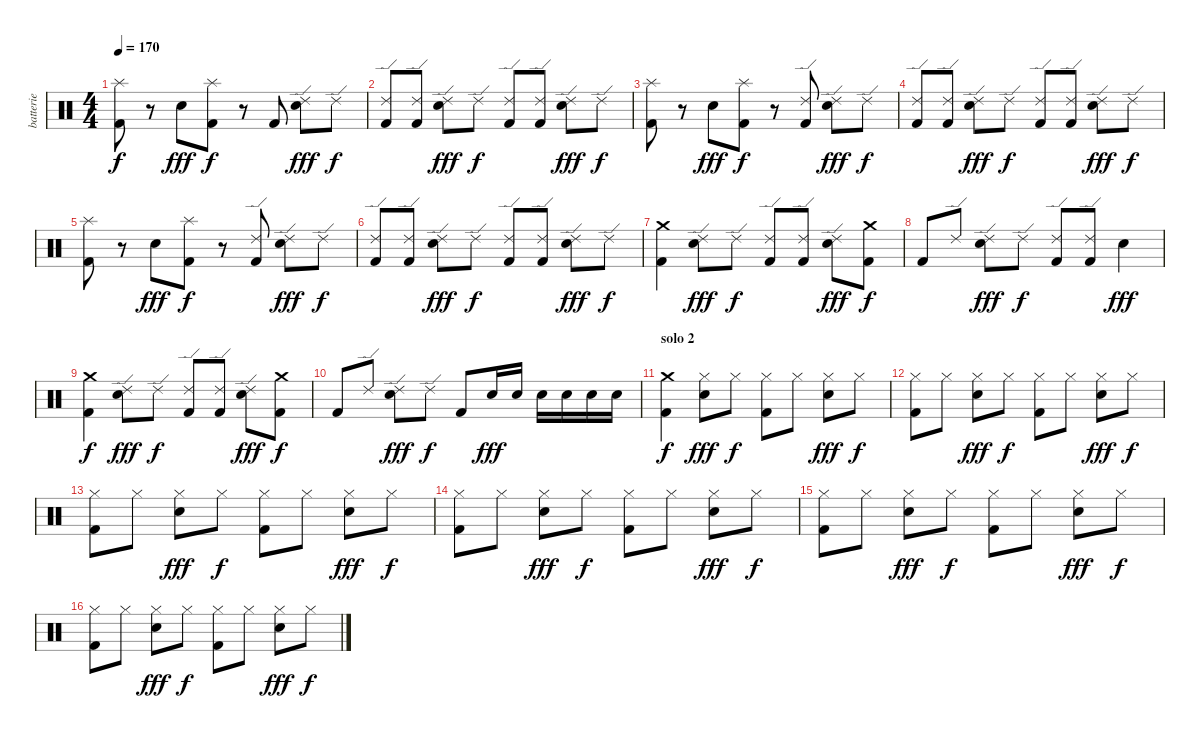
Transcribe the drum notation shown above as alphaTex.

\track ("batterie" "batterie") {instrument percussion}
\staff {score}
\articulation defaults
\ts (4 4)
\tempo 170
\clef neutral
\ks c
("Splash (hit)" "Kick (hit) 2").8{dy f} r.8 "Electric Snare (hit)".8{dy fff} ("Splash (hit)" "Kick (hit) 2").8{dy f} r.8 "Kick (hit) 2".8 ("Ride (edge) 2" "Electric Snare (hit)").8{dy fff} "Ride (edge) 2".8{dy f} |
("Ride (edge) 2" "Kick (hit) 2").8 ("Ride (edge) 2" "Kick (hit) 2").8 ("Ride (edge) 2" "Electric Snare (hit)").8{dy fff} "Ride (edge) 2".8{dy f} ("Ride (edge) 2" "Kick (hit) 2").8 ("Ride (edge) 2" "Kick (hit) 2").8 ("Ride (edge) 2" "Electric Snare (hit)").8{dy fff} "Ride (edge) 2".8{dy f} |
("Splash (hit)" "Kick (hit) 2").8 r.8 "Electric Snare (hit)".8{dy fff} ("Splash (hit)" "Kick (hit) 2").8{dy f} r.8 ("Ride (edge) 2" "Kick (hit) 2").8 ("Ride (edge) 2" "Electric Snare (hit)").8{dy fff} "Ride (edge) 2".8{dy f} |
("Ride (edge) 2" "Kick (hit) 2").8 ("Ride (edge) 2" "Kick (hit) 2").8 ("Ride (edge) 2" "Electric Snare (hit)").8{dy fff} "Ride (edge) 2".8{dy f} ("Ride (edge) 2" "Kick (hit) 2").8 ("Ride (edge) 2" "Kick (hit) 2").8 ("Ride (edge) 2" "Electric Snare (hit)").8{dy fff} "Ride (edge) 2".8{dy f} |
("Splash (hit)" "Kick (hit) 2").8 r.8 "Electric Snare (hit)".8{dy fff} ("Splash (hit)" "Kick (hit) 2").8{dy f} r.8 ("Ride (edge) 2" "Kick (hit) 2").8 ("Ride (edge) 2" "Electric Snare (hit)").8{dy fff} "Ride (edge) 2".8{dy f} |
("Ride (edge) 2" "Kick (hit) 2").8 ("Ride (edge) 2" "Kick (hit) 2").8 ("Ride (edge) 2" "Electric Snare (hit)").8{dy fff} "Ride (edge) 2".8{dy f} ("Ride (edge) 2" "Kick (hit) 2").8 ("Ride (edge) 2" "Kick (hit) 2").8 ("Ride (edge) 2" "Electric Snare (hit)").8{dy fff} "Ride (edge) 2".8{dy f} |
("Crash medium (hit)" "Kick (hit) 2").4 ("Ride (edge) 2" "Electric Snare (hit)").8{dy fff} "Ride (edge) 2".8{dy f} ("Ride (edge) 2" "Kick (hit) 2").8 ("Ride (edge) 2" "Kick (hit) 2").8 ("Ride (edge) 2" "Electric Snare (hit)").8{dy fff} ("Crash medium (hit)" "Kick (hit) 2").8{dy f} |
"Kick (hit) 2".8 "Ride (edge) 2".8 ("Ride (edge) 2" "Electric Snare (hit)").8{dy fff} "Ride (edge) 2".8{dy f} ("Ride (edge) 2" "Kick (hit) 2").8 ("Ride (edge) 2" "Kick (hit) 2").8 "Electric Snare (hit)".4{dy fff} |
("Crash medium (hit)" "Kick (hit) 2").4{dy f} ("Ride (edge) 2" "Electric Snare (hit)").8{dy fff} "Ride (edge) 2".8{dy f} ("Ride (edge) 2" "Kick (hit) 2").8 ("Ride (edge) 2" "Kick (hit) 2").8 ("Ride (edge) 2" "Electric Snare (hit)").8{dy fff} ("Crash medium (hit)" "Kick (hit) 2").8{dy f} |
"Kick (hit) 2".8 "Ride (edge) 2".8 ("Ride (edge) 2" "Electric Snare (hit)").8{dy fff} "Ride (edge) 2".8{dy f} "Kick (hit) 2".8 "Electric Snare (hit)".16{dy fff} "Electric Snare (hit)".16 "Electric Snare (hit)".16 "Electric Snare (hit)".16 "Electric Snare (hit)".16 "Electric Snare (hit)".16 |
\section ("" "solo 2")
("Crash medium (hit)" "Kick (hit) 2").4{dy f} ("Hi-Hat (closed)" "Electric Snare (hit)").8{dy fff} "Hi-Hat (closed)".8{dy f} ("Hi-Hat (closed)" "Kick (hit) 2").8 "Hi-Hat (closed)".8 ("Hi-Hat (closed)" "Electric Snare (hit)").8{dy fff} "Hi-Hat (closed)".8{dy f} |
("Hi-Hat (closed)" "Kick (hit) 2").8 "Hi-Hat (closed)".8 ("Hi-Hat (closed)" "Electric Snare (hit)").8{dy fff} "Hi-Hat (closed)".8{dy f} ("Hi-Hat (closed)" "Kick (hit) 2").8 "Hi-Hat (closed)".8 ("Hi-Hat (closed)" "Electric Snare (hit)").8{dy fff} "Hi-Hat (closed)".8{dy f} |
("Hi-Hat (closed)" "Kick (hit) 2").8 "Hi-Hat (closed)".8 ("Hi-Hat (closed)" "Electric Snare (hit)").8{dy fff} "Hi-Hat (closed)".8{dy f} ("Hi-Hat (closed)" "Kick (hit) 2").8 "Hi-Hat (closed)".8 ("Hi-Hat (closed)" "Electric Snare (hit)").8{dy fff} "Hi-Hat (closed)".8{dy f} |
("Hi-Hat (closed)" "Kick (hit) 2").8 "Hi-Hat (closed)".8 ("Hi-Hat (closed)" "Electric Snare (hit)").8{dy fff} "Hi-Hat (closed)".8{dy f} ("Hi-Hat (closed)" "Kick (hit) 2").8 "Hi-Hat (closed)".8 ("Hi-Hat (closed)" "Electric Snare (hit)").8{dy fff} "Hi-Hat (closed)".8{dy f} |
("Hi-Hat (closed)" "Kick (hit) 2").8 "Hi-Hat (closed)".8 ("Hi-Hat (closed)" "Electric Snare (hit)").8{dy fff} "Hi-Hat (closed)".8{dy f} ("Hi-Hat (closed)" "Kick (hit) 2").8 "Hi-Hat (closed)".8 ("Hi-Hat (closed)" "Electric Snare (hit)").8{dy fff} "Hi-Hat (closed)".8{dy f} |
("Hi-Hat (closed)" "Kick (hit) 2").8 "Hi-Hat (closed)".8 ("Hi-Hat (closed)" "Electric Snare (hit)").8{dy fff} "Hi-Hat (closed)".8{dy f} ("Hi-Hat (closed)" "Kick (hit) 2").8 "Hi-Hat (closed)".8 ("Hi-Hat (closed)" "Electric Snare (hit)").8{dy fff} "Hi-Hat (closed)".8{dy f}
